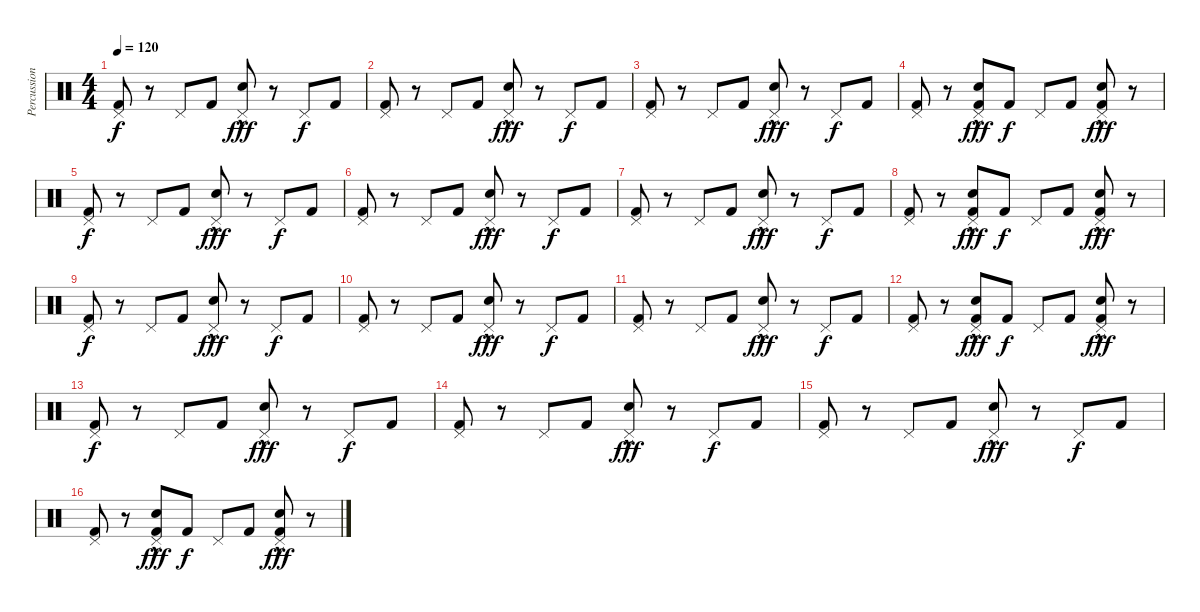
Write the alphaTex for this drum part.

\track ("Percussion" "Percussion") {instrument percussion}
\staff {score}
\articulation defaults
\ts (4 4)
\tempo 120
\clef neutral
\ks c
("Kick (hit) 2" "Pedal Hi-Hat (hit)").8{dy f} r.8 "Pedal Hi-Hat (hit)".8 "Kick (hit) 2".8 ("Snare (hit) 2"{hac} "Pedal Hi-Hat (hit)").8{dy fff} r.8 "Pedal Hi-Hat (hit)".8{dy f} "Kick (hit) 2".8 |
("Kick (hit) 2" "Pedal Hi-Hat (hit)").8 r.8 "Pedal Hi-Hat (hit)".8 "Kick (hit) 2".8 ("Snare (hit) 2"{hac} "Pedal Hi-Hat (hit)").8{dy fff} r.8 "Pedal Hi-Hat (hit)".8{dy f} "Kick (hit) 2".8 |
("Kick (hit) 2" "Pedal Hi-Hat (hit)").8 r.8 "Pedal Hi-Hat (hit)".8 "Kick (hit) 2".8 ("Snare (hit) 2"{hac} "Pedal Hi-Hat (hit)").8{dy fff} r.8 "Pedal Hi-Hat (hit)".8{dy f} "Kick (hit) 2".8 |
("Kick (hit) 2" "Pedal Hi-Hat (hit)").8 r.8 ("Kick (hit) 2" "Snare (hit) 2"{hac} "Pedal Hi-Hat (hit)").8{dy fff} "Kick (hit) 2".8{dy f} "Pedal Hi-Hat (hit)".8 "Kick (hit) 2".8 ("Kick (hit) 2" "Snare (hit) 2"{hac} "Pedal Hi-Hat (hit)").8{dy fff} r.8 |
("Kick (hit) 2" "Pedal Hi-Hat (hit)").8{dy f} r.8 "Pedal Hi-Hat (hit)".8 "Kick (hit) 2".8 ("Snare (hit) 2"{hac} "Pedal Hi-Hat (hit)").8{dy fff} r.8 "Pedal Hi-Hat (hit)".8{dy f} "Kick (hit) 2".8 |
("Kick (hit) 2" "Pedal Hi-Hat (hit)").8 r.8 "Pedal Hi-Hat (hit)".8 "Kick (hit) 2".8 ("Snare (hit) 2"{hac} "Pedal Hi-Hat (hit)").8{dy fff} r.8 "Pedal Hi-Hat (hit)".8{dy f} "Kick (hit) 2".8 |
("Kick (hit) 2" "Pedal Hi-Hat (hit)").8 r.8 "Pedal Hi-Hat (hit)".8 "Kick (hit) 2".8 ("Snare (hit) 2"{hac} "Pedal Hi-Hat (hit)").8{dy fff} r.8 "Pedal Hi-Hat (hit)".8{dy f} "Kick (hit) 2".8 |
("Kick (hit) 2" "Pedal Hi-Hat (hit)").8 r.8 ("Kick (hit) 2" "Snare (hit) 2"{hac} "Pedal Hi-Hat (hit)").8{dy fff} "Kick (hit) 2".8{dy f} "Pedal Hi-Hat (hit)".8 "Kick (hit) 2".8 ("Kick (hit) 2" "Snare (hit) 2"{hac} "Pedal Hi-Hat (hit)").8{dy fff} r.8 |
("Kick (hit) 2" "Pedal Hi-Hat (hit)").8{dy f} r.8 "Pedal Hi-Hat (hit)".8 "Kick (hit) 2".8 ("Snare (hit) 2"{hac} "Pedal Hi-Hat (hit)").8{dy fff} r.8 "Pedal Hi-Hat (hit)".8{dy f} "Kick (hit) 2".8 |
("Kick (hit) 2" "Pedal Hi-Hat (hit)").8 r.8 "Pedal Hi-Hat (hit)".8 "Kick (hit) 2".8 ("Snare (hit) 2"{hac} "Pedal Hi-Hat (hit)").8{dy fff} r.8 "Pedal Hi-Hat (hit)".8{dy f} "Kick (hit) 2".8 |
("Kick (hit) 2" "Pedal Hi-Hat (hit)").8 r.8 "Pedal Hi-Hat (hit)".8 "Kick (hit) 2".8 ("Snare (hit) 2"{hac} "Pedal Hi-Hat (hit)").8{dy fff} r.8 "Pedal Hi-Hat (hit)".8{dy f} "Kick (hit) 2".8 |
("Kick (hit) 2" "Pedal Hi-Hat (hit)").8 r.8 ("Kick (hit) 2" "Snare (hit) 2"{hac} "Pedal Hi-Hat (hit)").8{dy fff} "Kick (hit) 2".8{dy f} "Pedal Hi-Hat (hit)".8 "Kick (hit) 2".8 ("Kick (hit) 2" "Snare (hit) 2"{hac} "Pedal Hi-Hat (hit)").8{dy fff} r.8 |
("Kick (hit) 2" "Pedal Hi-Hat (hit)").8{dy f} r.8 "Pedal Hi-Hat (hit)".8 "Kick (hit) 2".8 ("Snare (hit) 2"{hac} "Pedal Hi-Hat (hit)").8{dy fff} r.8 "Pedal Hi-Hat (hit)".8{dy f} "Kick (hit) 2".8 |
("Kick (hit) 2" "Pedal Hi-Hat (hit)").8 r.8 "Pedal Hi-Hat (hit)".8 "Kick (hit) 2".8 ("Snare (hit) 2"{hac} "Pedal Hi-Hat (hit)").8{dy fff} r.8 "Pedal Hi-Hat (hit)".8{dy f} "Kick (hit) 2".8 |
("Kick (hit) 2" "Pedal Hi-Hat (hit)").8 r.8 "Pedal Hi-Hat (hit)".8 "Kick (hit) 2".8 ("Snare (hit) 2"{hac} "Pedal Hi-Hat (hit)").8{dy fff} r.8 "Pedal Hi-Hat (hit)".8{dy f} "Kick (hit) 2".8 |
("Kick (hit) 2" "Pedal Hi-Hat (hit)").8 r.8 ("Kick (hit) 2" "Snare (hit) 2"{hac} "Pedal Hi-Hat (hit)").8{dy fff} "Kick (hit) 2".8{dy f} "Pedal Hi-Hat (hit)".8 "Kick (hit) 2".8 ("Kick (hit) 2" "Snare (hit) 2"{hac} "Pedal Hi-Hat (hit)").8{dy fff} r.8
